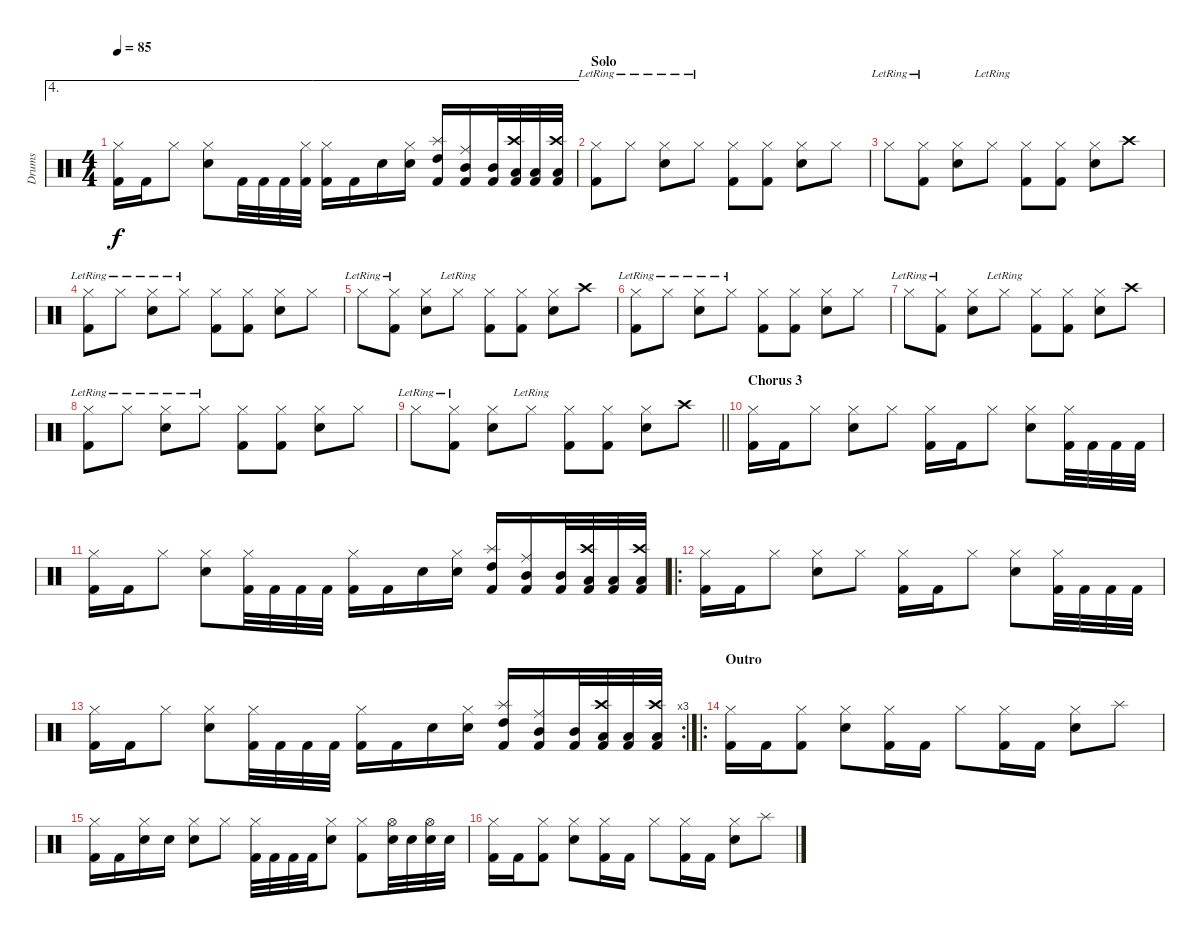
\track ("Drums" "Drums") {instrument percussion}
\staff {score}
\articulation defaults
\ae 4
\ts (4 4)
\tempo 85
\clef neutral
\ks c
("Hi-Hat (closed)" "Kick (hit) 2").16{dy f} "Kick (hit) 2".16 "Hi-Hat (closed)".8 ("Hi-Hat (closed)" "Snare (hit) 2").8 "Kick (hit) 2".32 "Kick (hit) 2".32 "Kick (hit) 2".32 ("Hi-Hat (closed)" "Kick (hit) 2").32 ("Hi-Hat (closed)" "Kick (hit) 2").16 "Kick (hit) 2".16 "Snare (hit) 2".16 ("Hi-Hat (closed)" "Snare (hit) 2").16 ("Splash (hit)" "High Tom (hit)" "Kick (hit) 2").16 ("Ride (middle)" "Mid Tom (hit)" "Kick (hit) 2").16 ("Mid Tom (hit)" "Kick (hit) 2").32 ("Crash high (hit)" "Low Tom (hit)" "Kick (hit) 2").32 ("Low Tom (hit)" "Kick (hit) 2").32 ("Crash high (hit)" "Low Tom (hit)" "Kick (hit) 2").32 |
\section ("" "Solo")
("Hi-Hat (closed)"{lr} "Kick (hit) 2").8 "Hi-Hat (closed)"{lr}.8 ("Hi-Hat (closed)"{lr} "Snare (hit) 2").8 "Hi-Hat (closed)"{lr}.8 ("Hi-Hat (closed)" "Kick (hit) 2").8 ("Hi-Hat (closed)" "Kick (hit) 2").8 ("Hi-Hat (closed)" "Snare (hit) 2").8 "Hi-Hat (closed)".8 |
"Hi-Hat (closed)"{lr}.8 ("Hi-Hat (closed)"{lr} "Kick (hit) 2").8 ("Hi-Hat (closed)" "Snare (hit) 2").8 "Hi-Hat (closed)"{lr}.8 ("Hi-Hat (closed)" "Kick (hit) 2").8 ("Hi-Hat (closed)" "Kick (hit) 2").8 ("Hi-Hat (closed)" "Snare (hit) 2").8 "Crash high (hit)".8 |
("Hi-Hat (closed)"{lr} "Kick (hit) 2").8 "Hi-Hat (closed)"{lr}.8 ("Hi-Hat (closed)"{lr} "Snare (hit) 2").8 "Hi-Hat (closed)"{lr}.8 ("Hi-Hat (closed)" "Kick (hit) 2").8 ("Hi-Hat (closed)" "Kick (hit) 2").8 ("Hi-Hat (closed)" "Snare (hit) 2").8 "Hi-Hat (closed)".8 |
"Hi-Hat (closed)"{lr}.8 ("Hi-Hat (closed)"{lr} "Kick (hit) 2").8 ("Hi-Hat (closed)" "Snare (hit) 2").8 "Hi-Hat (closed)"{lr}.8 ("Hi-Hat (closed)" "Kick (hit) 2").8 ("Hi-Hat (closed)" "Kick (hit) 2").8 ("Hi-Hat (closed)" "Snare (hit) 2").8 "Crash high (hit)".8 |
("Hi-Hat (closed)"{lr} "Kick (hit) 2").8 "Hi-Hat (closed)"{lr}.8 ("Hi-Hat (closed)"{lr} "Snare (hit) 2").8 "Hi-Hat (closed)"{lr}.8 ("Hi-Hat (closed)" "Kick (hit) 2").8 ("Hi-Hat (closed)" "Kick (hit) 2").8 ("Hi-Hat (closed)" "Snare (hit) 2").8 "Hi-Hat (closed)".8 |
"Hi-Hat (closed)"{lr}.8 ("Hi-Hat (closed)"{lr} "Kick (hit) 2").8 ("Hi-Hat (closed)" "Snare (hit) 2").8 "Hi-Hat (closed)"{lr}.8 ("Hi-Hat (closed)" "Kick (hit) 2").8 ("Hi-Hat (closed)" "Kick (hit) 2").8 ("Hi-Hat (closed)" "Snare (hit) 2").8 "Crash high (hit)".8 |
("Hi-Hat (closed)"{lr} "Kick (hit) 2").8 "Hi-Hat (closed)"{lr}.8 ("Hi-Hat (closed)"{lr} "Snare (hit) 2").8 "Hi-Hat (closed)"{lr}.8 ("Hi-Hat (closed)" "Kick (hit) 2").8 ("Hi-Hat (closed)" "Kick (hit) 2").8 ("Hi-Hat (closed)" "Snare (hit) 2").8 "Hi-Hat (closed)".8 |
\barLineRight lightlight "Hi-Hat (closed)"{lr}.8
("Hi-Hat (closed)"{lr} "Kick (hit) 2").8 ("Hi-Hat (closed)" "Snare (hit) 2").8 "Hi-Hat (closed)"{lr}.8 ("Hi-Hat (closed)" "Kick (hit) 2").8 ("Hi-Hat (closed)" "Kick (hit) 2").8 ("Hi-Hat (closed)" "Snare (hit) 2").8 "Crash high (hit)".8 |
\section ("" "Chorus 3")
("Hi-Hat (closed)" "Kick (hit) 2").16 "Kick (hit) 2".16 "Hi-Hat (closed)".8 ("Hi-Hat (closed)" "Snare (hit) 2").8 "Hi-Hat (closed)".8 ("Hi-Hat (closed)" "Kick (hit) 2").16 "Kick (hit) 2".16 "Hi-Hat (closed)".8 ("Hi-Hat (closed)" "Snare (hit) 2").8 ("Hi-Hat (closed)" "Kick (hit) 2").32 "Kick (hit) 2".32 "Kick (hit) 2".32 "Kick (hit) 2".32 |
("Hi-Hat (closed)" "Kick (hit) 2").16 "Kick (hit) 2".16 "Hi-Hat (closed)".8 ("Hi-Hat (closed)" "Snare (hit) 2").8 ("Hi-Hat (closed)" "Kick (hit) 2").32 "Kick (hit) 2".32 "Kick (hit) 2".32 "Kick (hit) 2".32 ("Hi-Hat (closed)" "Kick (hit) 2").16 "Kick (hit) 2".16 "Snare (hit) 2".16 ("Hi-Hat (closed)" "Snare (hit) 2").16 ("Splash (hit)" "High Tom (hit)" "Kick (hit) 2").16 ("Ride (middle)" "Mid Tom (hit)" "Kick (hit) 2").16 ("Mid Tom (hit)" "Kick (hit) 2").32 ("Crash high (hit)" "Low Tom (hit)" "Kick (hit) 2").32 ("Low Tom (hit)" "Kick (hit) 2").32 ("Crash high (hit)" "Low Tom (hit)" "Kick (hit) 2").32 |
\ro
("Hi-Hat (closed)" "Kick (hit) 2").16 "Kick (hit) 2".16 "Hi-Hat (closed)".8 ("Hi-Hat (closed)" "Snare (hit) 2").8 "Hi-Hat (closed)".8 ("Hi-Hat (closed)" "Kick (hit) 2").16 "Kick (hit) 2".16 "Hi-Hat (closed)".8 ("Hi-Hat (closed)" "Snare (hit) 2").8 ("Hi-Hat (closed)" "Kick (hit) 2").32 "Kick (hit) 2".32 "Kick (hit) 2".32 "Kick (hit) 2".32 |
\rc 3
("Hi-Hat (closed)" "Kick (hit) 2").16 "Kick (hit) 2".16 "Hi-Hat (closed)".8 ("Hi-Hat (closed)" "Snare (hit) 2").8 ("Hi-Hat (closed)" "Kick (hit) 2").32 "Kick (hit) 2".32 "Kick (hit) 2".32 "Kick (hit) 2".32 ("Hi-Hat (closed)" "Kick (hit) 2").16 "Kick (hit) 2".16 "Snare (hit) 2".16 ("Hi-Hat (closed)" "Snare (hit) 2").16 ("Splash (hit)" "High Tom (hit)" "Kick (hit) 2").16 ("Ride (middle)" "Mid Tom (hit)" "Kick (hit) 2").16 ("Mid Tom (hit)" "Kick (hit) 2").32 ("Crash high (hit)" "Low Tom (hit)" "Kick (hit) 2").32 ("Low Tom (hit)" "Kick (hit) 2").32 ("Crash high (hit)" "Low Tom (hit)" "Kick (hit) 2").32 |
\ro
\section ("" "Outro")
("Hi-Hat (closed)" "Kick (hit) 2").16 "Kick (hit) 2".16 ("Hi-Hat (closed)" "Kick (hit) 2").8 ("Hi-Hat (closed)" "Snare (hit) 2").8 ("Hi-Hat (closed)" "Kick (hit) 2").16 "Kick (hit) 2".16 "Hi-Hat (closed)".8 ("Hi-Hat (closed)" "Kick (hit) 2").16 "Kick (hit) 2".16 ("Hi-Hat (closed)" "Snare (hit) 2").8 "Splash (hit)".8 |
("Hi-Hat (closed)" "Kick (hit) 2").16 "Kick (hit) 2".16 ("Hi-Hat (closed)" "Snare (hit) 2").16 "Snare (hit) 2".16 ("Hi-Hat (closed)" "Snare (hit) 2").8 "Hi-Hat (closed)".8 ("Hi-Hat (closed)" "Kick (hit) 2").32 "Kick (hit) 2".32 "Kick (hit) 2".32 "Kick (hit) 2".32 ("Hi-Hat (closed)" "Snare (hit) 2").8 ("Hi-Hat (closed)" "Kick (hit) 2").8 ("Hi-Hat (open)" "Snare (hit) 2").32 "Snare (hit) 2".32 ("Hi-Hat (open)" "Snare (hit) 2").32 "Snare (hit) 2".32 |
("Hi-Hat (closed)" "Kick (hit) 2").16 "Kick (hit) 2".16 ("Hi-Hat (closed)" "Kick (hit) 2").8 ("Hi-Hat (closed)" "Snare (hit) 2").8 ("Hi-Hat (closed)" "Kick (hit) 2").16 "Kick (hit) 2".16 "Hi-Hat (closed)".8 ("Hi-Hat (closed)" "Kick (hit) 2").16 "Kick (hit) 2".16 ("Hi-Hat (closed)" "Snare (hit) 2").8 "Splash (hit)".8
